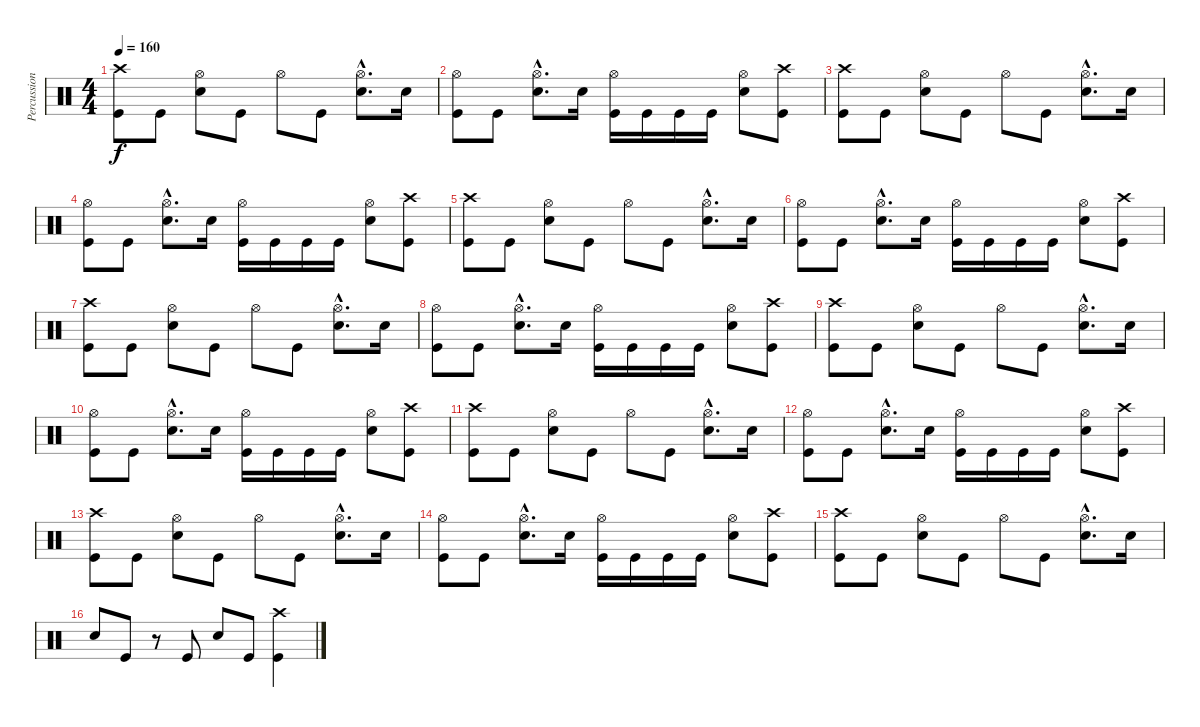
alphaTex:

\track ("Percussion" "Percussion") {instrument percussion}
\staff {score}
\articulation defaults
\ts (4 4)
\tempo 160
\clef neutral
\ks c
("Crash high (hit)" "Kick (hit)").8{dy f} "Kick (hit)".8 ("Hi-Hat (open)" "Electric Snare (hit)").8 "Kick (hit)".8 "Hi-Hat (open)".8 "Kick (hit)".8 ("Hi-Hat (open)"{hac} "Electric Snare (hit)"{hac}).8{d} "Electric Snare (hit)".16 |
("Hi-Hat (open)" "Kick (hit)").8 "Kick (hit)".8 ("Hi-Hat (open)"{hac} "Electric Snare (hit)"{hac}).8{d} "Electric Snare (hit)".16 ("Hi-Hat (open)" "Kick (hit)").16 "Kick (hit)".16 "Kick (hit)".16 "Kick (hit)".16 ("Hi-Hat (open)" "Electric Snare (hit)").8 ("Crash high (hit)" "Kick (hit)").8 |
("Crash high (hit)" "Kick (hit)").8 "Kick (hit)".8 ("Hi-Hat (open)" "Electric Snare (hit)").8 "Kick (hit)".8 "Hi-Hat (open)".8 "Kick (hit)".8 ("Hi-Hat (open)"{hac} "Electric Snare (hit)"{hac}).8{d} "Electric Snare (hit)".16 |
("Hi-Hat (open)" "Kick (hit)").8 "Kick (hit)".8 ("Hi-Hat (open)"{hac} "Electric Snare (hit)"{hac}).8{d} "Electric Snare (hit)".16 ("Hi-Hat (open)" "Kick (hit)").16 "Kick (hit)".16 "Kick (hit)".16 "Kick (hit)".16 ("Hi-Hat (open)" "Electric Snare (hit)").8 ("Crash high (hit)" "Kick (hit)").8 |
("Crash high (hit)" "Kick (hit)").8 "Kick (hit)".8 ("Hi-Hat (open)" "Electric Snare (hit)").8 "Kick (hit)".8 "Hi-Hat (open)".8 "Kick (hit)".8 ("Hi-Hat (open)"{hac} "Electric Snare (hit)"{hac}).8{d} "Electric Snare (hit)".16 |
("Hi-Hat (open)" "Kick (hit)").8 "Kick (hit)".8 ("Hi-Hat (open)"{hac} "Electric Snare (hit)"{hac}).8{d} "Electric Snare (hit)".16 ("Hi-Hat (open)" "Kick (hit)").16 "Kick (hit)".16 "Kick (hit)".16 "Kick (hit)".16 ("Hi-Hat (open)" "Electric Snare (hit)").8 ("Crash high (hit)" "Kick (hit)").8 |
("Crash high (hit)" "Kick (hit)").8 "Kick (hit)".8 ("Hi-Hat (open)" "Electric Snare (hit)").8 "Kick (hit)".8 "Hi-Hat (open)".8 "Kick (hit)".8 ("Hi-Hat (open)"{hac} "Electric Snare (hit)"{hac}).8{d} "Electric Snare (hit)".16 |
("Hi-Hat (open)" "Kick (hit)").8 "Kick (hit)".8 ("Hi-Hat (open)"{hac} "Electric Snare (hit)"{hac}).8{d} "Electric Snare (hit)".16 ("Hi-Hat (open)" "Kick (hit)").16 "Kick (hit)".16 "Kick (hit)".16 "Kick (hit)".16 ("Hi-Hat (open)" "Electric Snare (hit)").8 ("Crash high (hit)" "Kick (hit)").8 |
("Crash high (hit)" "Kick (hit)").8 "Kick (hit)".8 ("Hi-Hat (open)" "Electric Snare (hit)").8 "Kick (hit)".8 "Hi-Hat (open)".8 "Kick (hit)".8 ("Hi-Hat (open)"{hac} "Electric Snare (hit)"{hac}).8{d} "Electric Snare (hit)".16 |
("Hi-Hat (open)" "Kick (hit)").8 "Kick (hit)".8 ("Hi-Hat (open)"{hac} "Electric Snare (hit)"{hac}).8{d} "Electric Snare (hit)".16 ("Hi-Hat (open)" "Kick (hit)").16 "Kick (hit)".16 "Kick (hit)".16 "Kick (hit)".16 ("Hi-Hat (open)" "Electric Snare (hit)").8 ("Crash high (hit)" "Kick (hit)").8 |
("Crash high (hit)" "Kick (hit)").8 "Kick (hit)".8 ("Hi-Hat (open)" "Electric Snare (hit)").8 "Kick (hit)".8 "Hi-Hat (open)".8 "Kick (hit)".8 ("Hi-Hat (open)"{hac} "Electric Snare (hit)"{hac}).8{d} "Electric Snare (hit)".16 |
("Hi-Hat (open)" "Kick (hit)").8 "Kick (hit)".8 ("Hi-Hat (open)"{hac} "Electric Snare (hit)"{hac}).8{d} "Electric Snare (hit)".16 ("Hi-Hat (open)" "Kick (hit)").16 "Kick (hit)".16 "Kick (hit)".16 "Kick (hit)".16 ("Hi-Hat (open)" "Electric Snare (hit)").8 ("Crash high (hit)" "Kick (hit)").8 |
("Crash high (hit)" "Kick (hit)").8 "Kick (hit)".8 ("Hi-Hat (open)" "Electric Snare (hit)").8 "Kick (hit)".8 "Hi-Hat (open)".8 "Kick (hit)".8 ("Hi-Hat (open)"{hac} "Electric Snare (hit)"{hac}).8{d} "Electric Snare (hit)".16 |
("Hi-Hat (open)" "Kick (hit)").8 "Kick (hit)".8 ("Hi-Hat (open)"{hac} "Electric Snare (hit)"{hac}).8{d} "Electric Snare (hit)".16 ("Hi-Hat (open)" "Kick (hit)").16 "Kick (hit)".16 "Kick (hit)".16 "Kick (hit)".16 ("Hi-Hat (open)" "Electric Snare (hit)").8 ("Crash high (hit)" "Kick (hit)").8 |
("Crash high (hit)" "Kick (hit)").8 "Kick (hit)".8 ("Hi-Hat (open)" "Electric Snare (hit)").8 "Kick (hit)".8 "Hi-Hat (open)".8 "Kick (hit)".8 ("Hi-Hat (open)"{hac} "Electric Snare (hit)"{hac}).8{d} "Electric Snare (hit)".16 |
"Electric Snare (hit)".8 "Kick (hit)".8 r.8 "Kick (hit)".8 "Electric Snare (hit)".8 "Kick (hit)".8 ("Crash high (hit)" "Kick (hit)").4
